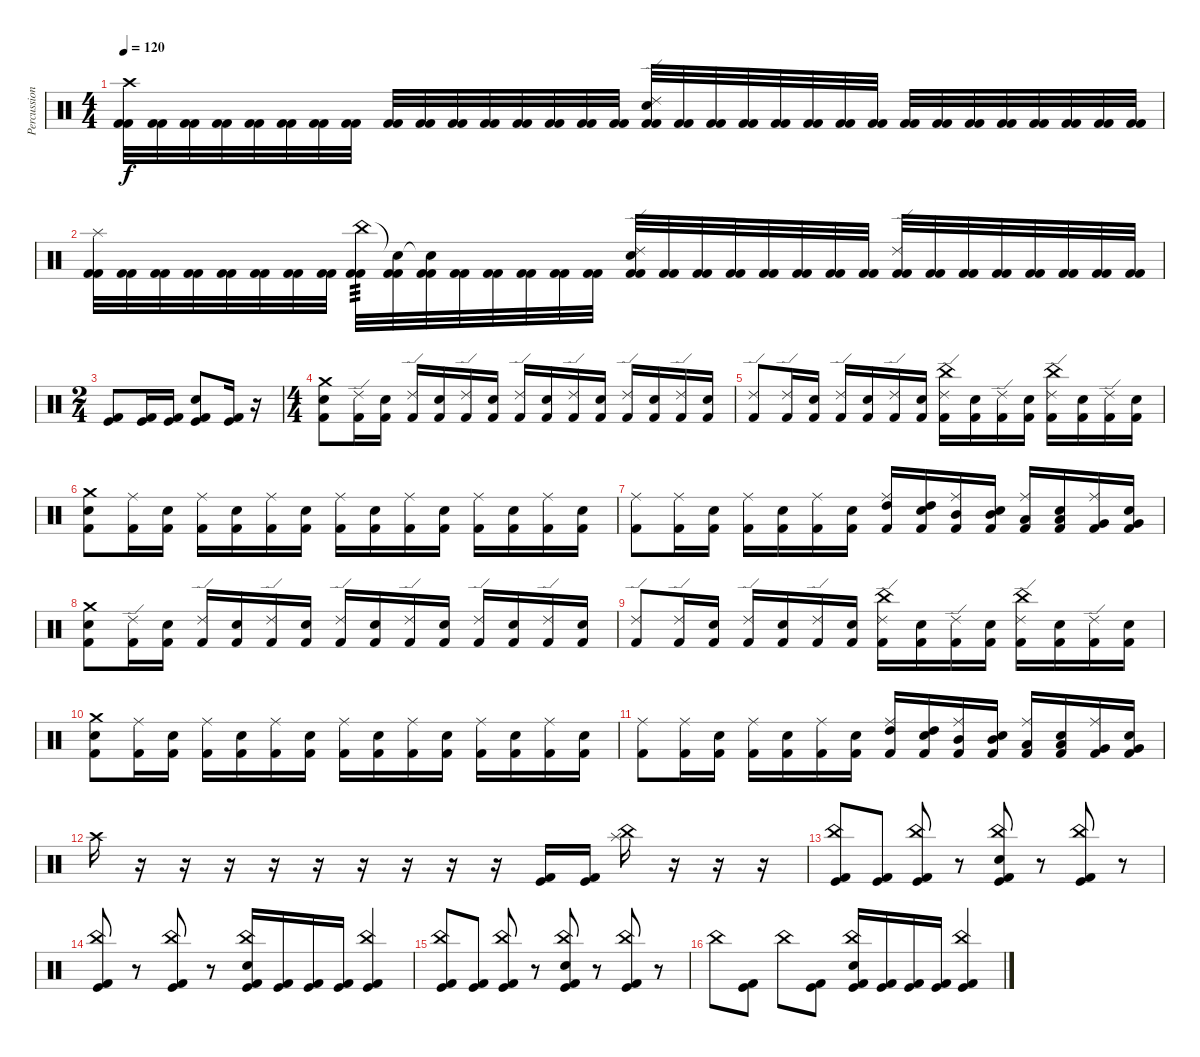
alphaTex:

\track ("Percussion" "Percussion") {instrument percussion}
\staff {score}
\articulation defaults
\ts (4 4)
\tempo 120
\clef neutral
\ks c
("Crash high (hit)" "Kick (hit) 2" "Kick (hit) 2").32{dy f} ("Kick (hit) 2" "Kick (hit) 2").32 ("Kick (hit) 2" "Kick (hit) 2").32 ("Kick (hit) 2" "Kick (hit) 2").32 ("Kick (hit) 2" "Kick (hit) 2").32 ("Kick (hit) 2" "Kick (hit) 2").32 ("Kick (hit) 2" "Kick (hit) 2").32 ("Kick (hit) 2" "Kick (hit) 2").32 ("Kick (hit) 2" "Kick (hit) 2").32 ("Kick (hit) 2" "Kick (hit) 2").32 ("Kick (hit) 2" "Kick (hit) 2").32 ("Kick (hit) 2" "Kick (hit) 2").32 ("Kick (hit) 2" "Kick (hit) 2").32 ("Kick (hit) 2" "Kick (hit) 2").32 ("Kick (hit) 2" "Kick (hit) 2").32 ("Kick (hit) 2" "Kick (hit) 2").32 ("Ride (edge) 2" "Electric Snare (hit)" "Kick (hit) 2" "Kick (hit) 2").32 ("Kick (hit) 2" "Kick (hit) 2").32 ("Kick (hit) 2" "Kick (hit) 2").32 ("Kick (hit) 2" "Kick (hit) 2").32 ("Kick (hit) 2" "Kick (hit) 2").32 ("Kick (hit) 2" "Kick (hit) 2").32 ("Kick (hit) 2" "Kick (hit) 2").32 ("Kick (hit) 2" "Kick (hit) 2").32 ("Kick (hit) 2" "Kick (hit) 2").32 ("Kick (hit) 2" "Kick (hit) 2").32 ("Kick (hit) 2" "Kick (hit) 2").32 ("Kick (hit) 2" "Kick (hit) 2").32 ("Kick (hit) 2" "Kick (hit) 2").32 ("Kick (hit) 2" "Kick (hit) 2").32 ("Kick (hit) 2" "Kick (hit) 2").32 ("Kick (hit) 2" "Kick (hit) 2").32 |
("Splash (hit)" "Kick (hit) 2" "Kick (hit) 2").32 ("Kick (hit) 2" "Kick (hit) 2").32 ("Kick (hit) 2" "Kick (hit) 2").32 ("Kick (hit) 2" "Kick (hit) 2").32 ("Kick (hit) 2" "Kick (hit) 2").32 ("Kick (hit) 2" "Kick (hit) 2").32 ("Kick (hit) 2" "Kick (hit) 2").32 ("Kick (hit) 2" "Kick (hit) 2").32 ("China (hit)" "Kick (hit) 2" "Kick (hit) 2").32{tp 3} ("Snare (hit)"{t} "Kick (hit) 2" "Kick (hit) 2").32 ("Snare (hit)"{t} "Kick (hit) 2" "Kick (hit) 2").32 ("Kick (hit) 2" "Kick (hit) 2").32 ("Kick (hit) 2" "Kick (hit) 2").32 ("Kick (hit) 2" "Kick (hit) 2").32 ("Kick (hit) 2" "Kick (hit) 2").32 ("Kick (hit) 2" "Kick (hit) 2").32 ("Ride (edge) 2" "Electric Snare (hit)" "Kick (hit) 2" "Kick (hit) 2").32 ("Kick (hit) 2" "Kick (hit) 2").32 ("Kick (hit) 2" "Kick (hit) 2").32 ("Kick (hit) 2" "Kick (hit) 2").32 ("Kick (hit) 2" "Kick (hit) 2").32 ("Kick (hit) 2" "Kick (hit) 2").32 ("Kick (hit) 2" "Kick (hit) 2").32 ("Kick (hit) 2" "Kick (hit) 2").32 ("Ride (edge) 2" "Kick (hit) 2" "Kick (hit) 2").32 ("Kick (hit) 2" "Kick (hit) 2").32 ("Kick (hit) 2" "Kick (hit) 2").32 ("Kick (hit) 2" "Kick (hit) 2").32 ("Kick (hit) 2" "Kick (hit) 2").32 ("Kick (hit) 2" "Kick (hit) 2").32 ("Kick (hit) 2" "Kick (hit) 2").32 ("Kick (hit) 2" "Kick (hit) 2").32 |
\ts (2 4)
("Kick (hit)" "Kick (hit) 2").8 ("Kick (hit)" "Kick (hit) 2").16 ("Kick (hit)" "Kick (hit) 2").16 ("Kick (hit)" "Electric Snare (hit)" "Kick (hit) 2").8 ("Kick (hit)" "Kick (hit) 2").16 r.16 |
\ts (4 4)
("Crash medium (hit)" "Electric Snare (hit)" "Kick (hit) 2").8 ("Ride (edge) 2" "Kick (hit) 2").16 ("Electric Snare (hit)" "Kick (hit) 2").16 ("Ride (edge) 2" "Kick (hit) 2").16 ("Electric Snare (hit)" "Kick (hit) 2").16 ("Ride (edge) 2" "Kick (hit) 2").16 ("Electric Snare (hit)" "Kick (hit) 2").16 ("Ride (edge) 2" "Kick (hit) 2").16 ("Electric Snare (hit)" "Kick (hit) 2").16 ("Ride (edge) 2" "Kick (hit) 2").16 ("Electric Snare (hit)" "Kick (hit) 2").16 ("Ride (edge) 2" "Kick (hit) 2").16 ("Electric Snare (hit)" "Kick (hit) 2").16 ("Ride (edge) 2" "Kick (hit) 2").16 ("Electric Snare (hit)" "Kick (hit) 2").16 |
("Ride (edge) 2" "Kick (hit) 2").8 ("Ride (edge) 2" "Kick (hit) 2").16 ("Electric Snare (hit)" "Kick (hit) 2").16 ("Ride (edge) 2" "Kick (hit) 2").16 ("Electric Snare (hit)" "Kick (hit) 2").16 ("Ride (edge) 2" "Kick (hit) 2").16 ("Electric Snare (hit)" "Kick (hit) 2").16 ("Ride (edge) 2" "China (hit)" "Kick (hit) 2").16 ("Electric Snare (hit)" "Kick (hit) 2").16 ("Ride (edge) 2" "Kick (hit) 2").16 ("Electric Snare (hit)" "Kick (hit) 2").16 ("Ride (edge) 2" "China (hit)" "Kick (hit) 2").16 ("Electric Snare (hit)" "Kick (hit) 2").16 ("Ride (edge) 2" "Kick (hit) 2").16 ("Electric Snare (hit)" "Kick (hit) 2").16 |
("Crash medium (hit)" "Electric Snare (hit)" "Kick (hit) 2").8 ("Ride (middle)" "Kick (hit) 2").16 ("Electric Snare (hit)" "Kick (hit) 2").16 ("Ride (middle)" "Kick (hit) 2").16 ("Electric Snare (hit)" "Kick (hit) 2").16 ("Ride (middle)" "Kick (hit) 2").16 ("Electric Snare (hit)" "Kick (hit) 2").16 ("Ride (middle)" "Kick (hit) 2").16 ("Electric Snare (hit)" "Kick (hit) 2").16 ("Ride (middle)" "Kick (hit) 2").16 ("Electric Snare (hit)" "Kick (hit) 2").16 ("Ride (middle)" "Kick (hit) 2").16 ("Electric Snare (hit)" "Kick (hit) 2").16 ("Ride (middle)" "Kick (hit) 2").16 ("Electric Snare (hit)" "Kick (hit) 2").16 |
("Ride (middle)" "Kick (hit) 2").8 ("Ride (middle)" "Kick (hit) 2").16 ("Electric Snare (hit)" "Kick (hit) 2").16 ("Ride (middle)" "Kick (hit) 2").16 ("Electric Snare (hit)" "Kick (hit) 2").16 ("Ride (middle)" "Kick (hit) 2").16 ("Electric Snare (hit)" "Kick (hit) 2").16 ("Ride (middle)" "High Tom (hit)" "Kick (hit) 2").16 ("Electric Snare (hit)" "High Tom (hit)" "Kick (hit) 2").16 ("Ride (middle)" "Mid Tom (hit)" "Kick (hit) 2").16 ("Electric Snare (hit)" "Mid Tom (hit)" "Kick (hit) 2").16 ("Ride (middle)" "Low Tom (hit)" "Kick (hit) 2").16 ("Electric Snare (hit)" "Low Tom (hit)" "Kick (hit) 2").16 ("Ride (middle)" "Very Low Tom (hit)" "Kick (hit) 2").16 ("Electric Snare (hit)" "Very Low Tom (hit)" "Kick (hit) 2").16 |
("Crash medium (hit)" "Electric Snare (hit)" "Kick (hit) 2").8 ("Ride (edge) 2" "Kick (hit) 2").16 ("Electric Snare (hit)" "Kick (hit) 2").16 ("Ride (edge) 2" "Kick (hit) 2").16 ("Electric Snare (hit)" "Kick (hit) 2").16 ("Ride (edge) 2" "Kick (hit) 2").16 ("Electric Snare (hit)" "Kick (hit) 2").16 ("Ride (edge) 2" "Kick (hit) 2").16 ("Electric Snare (hit)" "Kick (hit) 2").16 ("Ride (edge) 2" "Kick (hit) 2").16 ("Electric Snare (hit)" "Kick (hit) 2").16 ("Ride (edge) 2" "Kick (hit) 2").16 ("Electric Snare (hit)" "Kick (hit) 2").16 ("Ride (edge) 2" "Kick (hit) 2").16 ("Electric Snare (hit)" "Kick (hit) 2").16 |
("Ride (edge) 2" "Kick (hit) 2").8 ("Ride (edge) 2" "Kick (hit) 2").16 ("Electric Snare (hit)" "Kick (hit) 2").16 ("Ride (edge) 2" "Kick (hit) 2").16 ("Electric Snare (hit)" "Kick (hit) 2").16 ("Ride (edge) 2" "Kick (hit) 2").16 ("Electric Snare (hit)" "Kick (hit) 2").16 ("Ride (edge) 2" "China (hit)" "Kick (hit) 2").16 ("Electric Snare (hit)" "Kick (hit) 2").16 ("Ride (edge) 2" "Kick (hit) 2").16 ("Electric Snare (hit)" "Kick (hit) 2").16 ("Ride (edge) 2" "China (hit)" "Kick (hit) 2").16 ("Electric Snare (hit)" "Kick (hit) 2").16 ("Ride (edge) 2" "Kick (hit) 2").16 ("Electric Snare (hit)" "Kick (hit) 2").16 |
("Crash medium (hit)" "Electric Snare (hit)" "Kick (hit) 2").8 ("Ride (middle)" "Kick (hit) 2").16 ("Electric Snare (hit)" "Kick (hit) 2").16 ("Ride (middle)" "Kick (hit) 2").16 ("Electric Snare (hit)" "Kick (hit) 2").16 ("Ride (middle)" "Kick (hit) 2").16 ("Electric Snare (hit)" "Kick (hit) 2").16 ("Ride (middle)" "Kick (hit) 2").16 ("Electric Snare (hit)" "Kick (hit) 2").16 ("Ride (middle)" "Kick (hit) 2").16 ("Electric Snare (hit)" "Kick (hit) 2").16 ("Ride (middle)" "Kick (hit) 2").16 ("Electric Snare (hit)" "Kick (hit) 2").16 ("Ride (middle)" "Kick (hit) 2").16 ("Electric Snare (hit)" "Kick (hit) 2").16 |
("Ride (middle)" "Kick (hit) 2").8 ("Ride (middle)" "Kick (hit) 2").16 ("Electric Snare (hit)" "Kick (hit) 2").16 ("Ride (middle)" "Kick (hit) 2").16 ("Electric Snare (hit)" "Kick (hit) 2").16 ("Ride (middle)" "Kick (hit) 2").16 ("Electric Snare (hit)" "Kick (hit) 2").16 ("Ride (middle)" "High Tom (hit)" "Kick (hit) 2").16 ("Electric Snare (hit)" "High Tom (hit)" "Kick (hit) 2").16 ("Ride (middle)" "Mid Tom (hit)" "Kick (hit) 2").16 ("Electric Snare (hit)" "Mid Tom (hit)" "Kick (hit) 2").16 ("Ride (middle)" "Low Tom (hit)" "Kick (hit) 2").16 ("Electric Snare (hit)" "Low Tom (hit)" "Kick (hit) 2").16 ("Ride (middle)" "Very Low Tom (hit)" "Kick (hit) 2").16 ("Electric Snare (hit)" "Very Low Tom (hit)" "Kick (hit) 2").16 |
"Crash high (hit)".16 r.16 r.16 r.16 r.16 r.16 r.16 r.16 r.16 r.16 ("Kick (hit)" "Kick (hit) 2").16 ("Kick (hit)" "Kick (hit) 2").16 ("Splash (hit)" "China (hit)").16 r.16 r.16 r.16 |
("Kick (hit)" "China (hit)" "Kick (hit) 2").8 ("Kick (hit)" "Kick (hit) 2").8 ("Kick (hit)" "China (hit)" "Kick (hit) 2").8 r.8 ("Kick (hit)" "Electric Snare (hit)" "China (hit)" "Kick (hit) 2").8 r.8 ("Kick (hit)" "China (hit)" "Kick (hit) 2").8 r.8 |
("Kick (hit)" "China (hit)" "Kick (hit) 2").8 r.8 ("Kick (hit)" "China (hit)" "Kick (hit) 2").8 r.8 ("Kick (hit)" "Electric Snare (hit)" "China (hit)" "Kick (hit) 2").16 ("Kick (hit)" "Kick (hit) 2").16 ("Kick (hit)" "Kick (hit) 2").16 ("Kick (hit)" "Kick (hit) 2").16 ("Kick (hit)" "China (hit)" "Kick (hit) 2").4 |
("Kick (hit)" "China (hit)" "Kick (hit) 2").8 ("Kick (hit)" "Kick (hit) 2").8 ("Kick (hit)" "China (hit)" "Kick (hit) 2").8 r.8 ("Kick (hit)" "Electric Snare (hit)" "China (hit)" "Kick (hit) 2").8 r.8 ("Kick (hit)" "China (hit)" "Kick (hit) 2").8 r.8 |
"China (hit)".8 ("Kick (hit)" "Kick (hit) 2").8 "China (hit)".8 ("Kick (hit)" "Kick (hit) 2").8 ("Kick (hit)" "Electric Snare (hit)" "China (hit)" "Kick (hit) 2").16 ("Kick (hit)" "Kick (hit) 2").16 ("Kick (hit)" "Kick (hit) 2").16 ("Kick (hit)" "Kick (hit) 2").16 ("Kick (hit)" "China (hit)" "Kick (hit) 2").4
